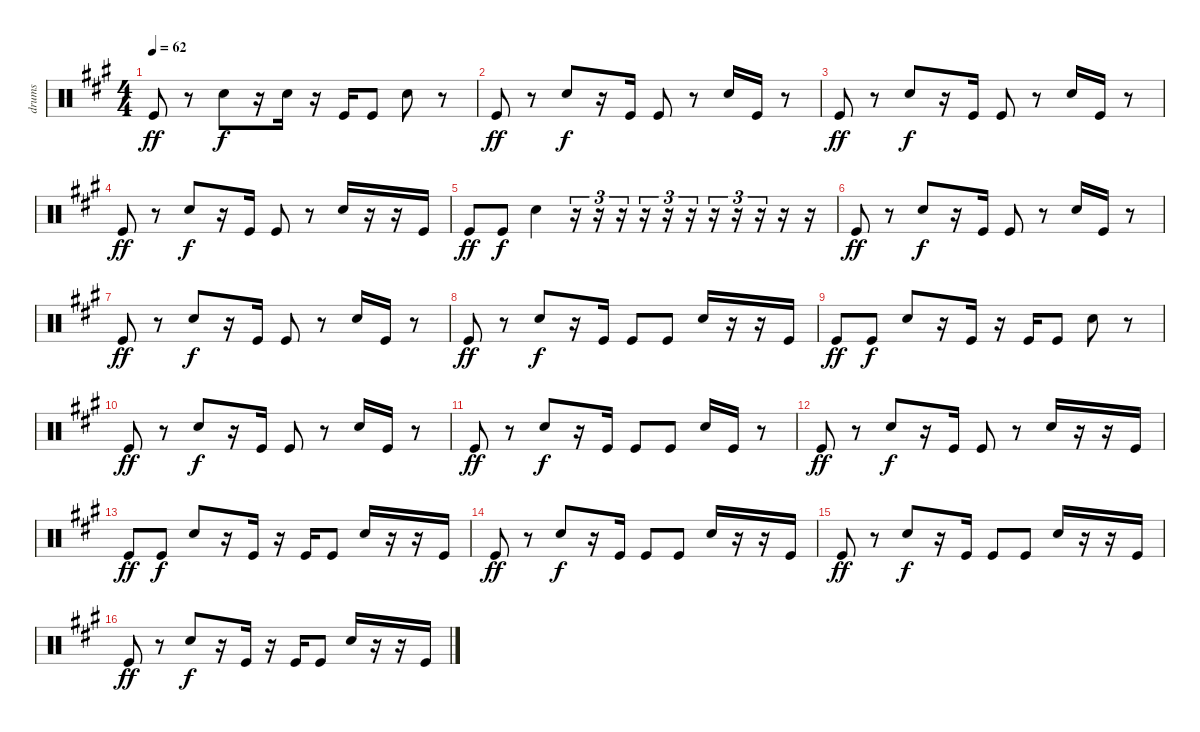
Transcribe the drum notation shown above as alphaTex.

\track ("drums" "drums") {instrument percussion}
\staff {score}
\articulation defaults
\ts (4 4)
\tempo 62
\clef neutral
\ks a "Kick (hit)".8{dy ff}
r.8 "Electric Snare (hit)".8{dy f} r.16 "Electric Snare (hit)".16 r.16 "Kick (hit)".16 "Kick (hit)".8 "Electric Snare (hit)".8 r.8 |
"Kick (hit)".8{dy ff} r.8 "Electric Snare (hit)".8{dy f} r.16 "Kick (hit)".16 "Kick (hit)".8 r.8 "Electric Snare (hit)".16 "Kick (hit)".16 r.8 |
"Kick (hit)".8{dy ff} r.8 "Electric Snare (hit)".8{dy f} r.16 "Kick (hit)".16 "Kick (hit)".8 r.8 "Electric Snare (hit)".16 "Kick (hit)".16 r.8 |
"Kick (hit)".8{dy ff} r.8 "Electric Snare (hit)".8{dy f} r.16 "Kick (hit)".16 "Kick (hit)".8 r.8 "Electric Snare (hit)".16 r.16 r.16 "Kick (hit)".16 |
"Kick (hit)".8{dy ff} "Kick (hit)".8{dy f} "Electric Snare (hit)".4 r.16{tu (3 2)} r.16{tu (3 2)} r.16{tu (3 2)} r.16{tu (3 2)} r.16{tu (3 2)} r.16{tu (3 2)} r.16{tu (3 2)} r.16{tu (3 2)} r.16{tu (3 2)} r.16 r.16 |
"Kick (hit)".8{dy ff} r.8 "Electric Snare (hit)".8{dy f} r.16 "Kick (hit)".16 "Kick (hit)".8 r.8 "Electric Snare (hit)".16 "Kick (hit)".16 r.8 |
"Kick (hit)".8{dy ff} r.8 "Electric Snare (hit)".8{dy f} r.16 "Kick (hit)".16 "Kick (hit)".8 r.8 "Electric Snare (hit)".16 "Kick (hit)".16 r.8 |
"Kick (hit)".8{dy ff} r.8 "Electric Snare (hit)".8{dy f} r.16 "Kick (hit)".16 "Kick (hit)".8 "Kick (hit)".8 "Electric Snare (hit)".16 r.16 r.16 "Kick (hit)".16 |
"Kick (hit)".8{dy ff} "Kick (hit)".8{dy f} "Electric Snare (hit)".8 r.16 "Kick (hit)".16 r.16 "Kick (hit)".16 "Kick (hit)".8 "Electric Snare (hit)".8 r.8 |
"Kick (hit)".8{dy ff} r.8 "Electric Snare (hit)".8{dy f} r.16 "Kick (hit)".16 "Kick (hit)".8 r.8 "Electric Snare (hit)".16 "Kick (hit)".16 r.8 |
"Kick (hit)".8{dy ff} r.8 "Electric Snare (hit)".8{dy f} r.16 "Kick (hit)".16 "Kick (hit)".8 "Kick (hit)".8 "Electric Snare (hit)".16 "Kick (hit)".16 r.8 |
"Kick (hit)".8{dy ff} r.8 "Electric Snare (hit)".8{dy f} r.16 "Kick (hit)".16 "Kick (hit)".8 r.8 "Electric Snare (hit)".16 r.16 r.16 "Kick (hit)".16 |
"Kick (hit)".8{dy ff} "Kick (hit)".8{dy f} "Electric Snare (hit)".8 r.16 "Kick (hit)".16 r.16 "Kick (hit)".16 "Kick (hit)".8 "Electric Snare (hit)".16 r.16 r.16 "Kick (hit)".16 |
"Kick (hit)".8{dy ff} r.8 "Electric Snare (hit)".8{dy f} r.16 "Kick (hit)".16 "Kick (hit)".8 "Kick (hit)".8 "Electric Snare (hit)".16 r.16 r.16 "Kick (hit)".16 |
"Kick (hit)".8{dy ff} r.8 "Electric Snare (hit)".8{dy f} r.16 "Kick (hit)".16 "Kick (hit)".8 "Kick (hit)".8 "Electric Snare (hit)".16 r.16 r.16 "Kick (hit)".16 |
"Kick (hit)".8{dy ff} r.8 "Electric Snare (hit)".8{dy f} r.16 "Kick (hit)".16 r.16 "Kick (hit)".16 "Kick (hit)".8 "Electric Snare (hit)".16 r.16 r.16 "Kick (hit)".16
